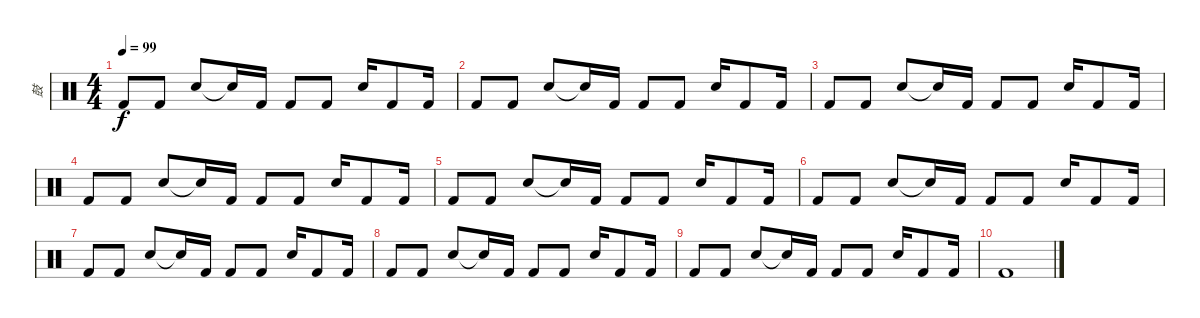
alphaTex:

\track ("鼓" "鼓") {instrument percussion}
\staff {score}
\articulation defaults
\ts (4 4)
\tempo 99
\clef neutral
\ks c "Kick (hit) 2".8{dy f} "Kick (hit) 2".8 "Snare (hit) 2".8 "Snare (hit)"{t}.16 "Kick (hit) 2".16 "Kick (hit) 2".8 "Kick (hit) 2".8 "Snare (hit) 2".16 "Kick (hit) 2".8 "Kick (hit) 2".16
|
"Kick (hit) 2".8 "Kick (hit) 2".8 "Snare (hit) 2".8 "Snare (hit)"{t}.16 "Kick (hit) 2".16 "Kick (hit) 2".8 "Kick (hit) 2".8 "Snare (hit) 2".16 "Kick (hit) 2".8 "Kick (hit) 2".16 |
"Kick (hit) 2".8 "Kick (hit) 2".8 "Snare (hit) 2".8 "Snare (hit)"{t}.16 "Kick (hit) 2".16 "Kick (hit) 2".8 "Kick (hit) 2".8 "Snare (hit) 2".16 "Kick (hit) 2".8 "Kick (hit) 2".16 |
"Kick (hit) 2".8 "Kick (hit) 2".8 "Snare (hit) 2".8 "Snare (hit)"{t}.16 "Kick (hit) 2".16 "Kick (hit) 2".8 "Kick (hit) 2".8 "Snare (hit) 2".16 "Kick (hit) 2".8 "Kick (hit) 2".16 |
"Kick (hit) 2".8 "Kick (hit) 2".8 "Snare (hit) 2".8 "Snare (hit)"{t}.16 "Kick (hit) 2".16 "Kick (hit) 2".8 "Kick (hit) 2".8 "Snare (hit) 2".16 "Kick (hit) 2".8 "Kick (hit) 2".16 |
"Kick (hit) 2".8 "Kick (hit) 2".8 "Snare (hit) 2".8 "Snare (hit)"{t}.16 "Kick (hit) 2".16 "Kick (hit) 2".8 "Kick (hit) 2".8 "Snare (hit) 2".16 "Kick (hit) 2".8 "Kick (hit) 2".16 |
"Kick (hit) 2".8 "Kick (hit) 2".8 "Snare (hit) 2".8 "Snare (hit)"{t}.16 "Kick (hit) 2".16 "Kick (hit) 2".8 "Kick (hit) 2".8 "Snare (hit) 2".16 "Kick (hit) 2".8 "Kick (hit) 2".16 |
"Kick (hit) 2".8 "Kick (hit) 2".8 "Snare (hit) 2".8 "Snare (hit)"{t}.16 "Kick (hit) 2".16 "Kick (hit) 2".8 "Kick (hit) 2".8 "Snare (hit) 2".16 "Kick (hit) 2".8 "Kick (hit) 2".16 |
"Kick (hit) 2".8 "Kick (hit) 2".8 "Snare (hit) 2".8 "Snare (hit)"{t}.16 "Kick (hit) 2".16 "Kick (hit) 2".8 "Kick (hit) 2".8 "Snare (hit) 2".16 "Kick (hit) 2".8 "Kick (hit) 2".16 |
"Kick (hit) 2".1
